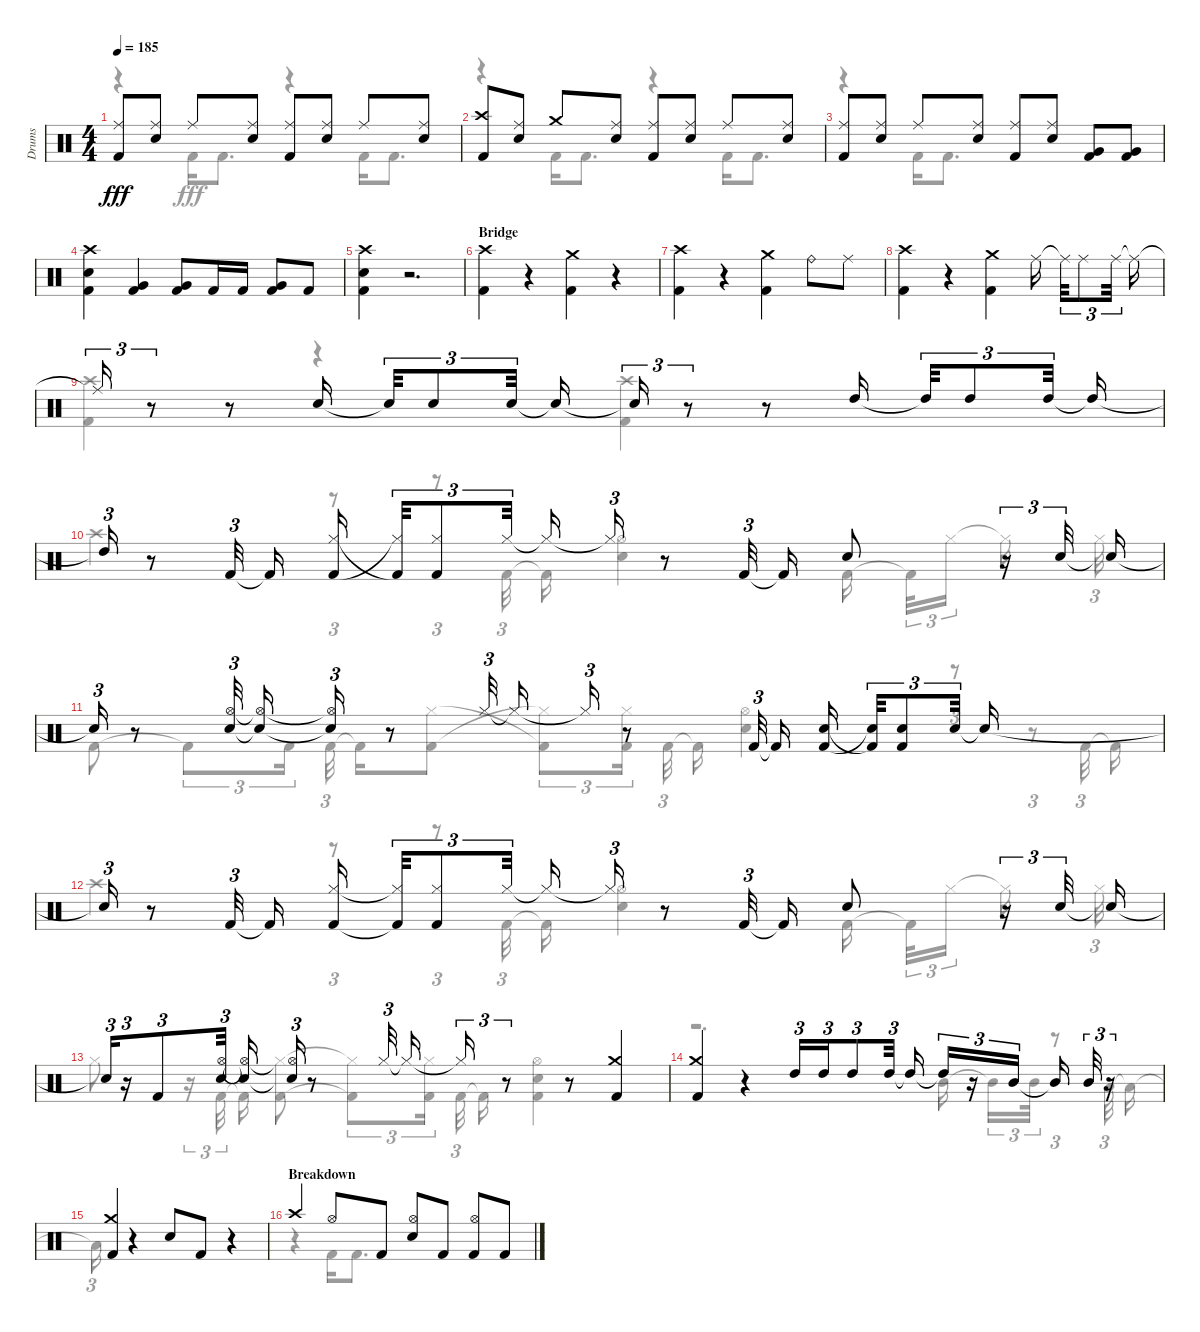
\track ("Drums" "Drums") {instrument percussion}
\staff {score}
\articulation defaults
\voice
\ts (4 4)
\tempo 185
\clef neutral
\ks aminor
("Kick (hit) 2" "Ride (middle)").8{dy fff} ("Ride (middle)" "Snare (hit) 2").8 "Ride (middle)".8 ("Ride (middle)" "Snare (hit) 2").8 ("Ride (middle)" "Kick (hit) 2").8 ("Ride (middle)" "Snare (hit) 2").8 "Ride (middle)".8 ("Snare (hit) 2" "Ride (middle)").8 |
("Crash high (hit)" "Kick (hit) 2").8 ("Snare (hit) 2" "Ride (middle)").8 "Crash medium (hit)".8 ("Ride (middle)" "Snare (hit) 2").8 ("Ride (middle)" "Kick (hit) 2").8 ("Snare (hit) 2" "Ride (middle)").8 "Ride (middle)".8 ("Snare (hit) 2" "Ride (middle)").8 |
("Ride (middle)" "Kick (hit) 2").8 ("Ride (middle)" "Snare (hit) 2").8 "Ride (middle)".8 ("Snare (hit) 2" "Ride (middle)").8 ("Kick (hit) 2" "Ride (middle)").8 ("Ride (middle)" "Snare (hit) 2").8 ("Very Low Tom (hit)" "Kick (hit) 2").8 ("Very Low Tom (hit)" "Kick (hit) 2").8 |
("Kick (hit) 2" "Snare (hit) 2" "Crash high (hit)").4 ("Kick (hit) 2" "Very Low Tom (hit)").4 ("Very Low Tom (hit)" "Kick (hit) 2").8 "Kick (hit) 2".16 "Kick (hit) 2".16 ("Kick (hit) 2" "Very Low Tom (hit)").8 "Kick (hit) 2".8 |
("Kick (hit) 2" "Snare (hit) 2" "Crash high (hit)").4 r.2{d} |
\section ("" "Bridge")
("Crash high (hit)" "Kick (hit) 2").4 r.4 ("Kick (hit) 2" "Crash medium (hit)").4 r.4 |
("Kick (hit) 2" "Crash high (hit)").4 r.4 ("Crash medium (hit)" "Kick (hit) 2").4 "Ride (bell)".8 "Ride (middle)".8 |
("Crash high (hit)" "Kick (hit) 2").4 r.4 ("Crash medium (hit)" "Kick (hit) 2").4 "Ride (middle)".16 "Ride (middle)"{t}.32{tu (3 2)} "Ride (middle)".8{tu (3 2)} "Ride (middle)".32{tu (3 2)} "Ride (middle)"{t}.16 |
"Ride (middle)"{t}.16{tu (3 2)} r.8{tu (3 2)} r.8 "Snare (hit) 2".16 "Snare (hit) 2"{t}.32{tu (3 2)} "Snare (hit) 2".8{tu (3 2)} "Snare (hit) 2".32{tu (3 2)} "Snare (hit) 2"{t}.16 "Snare (hit) 2"{t}.16{tu (3 2)} r.8{tu (3 2)} r.8 "High Tom (hit)".16 "High Tom (hit)"{t}.32{tu (3 2)} "High Tom (hit)".8{tu (3 2)} "High Tom (hit)".32{tu (3 2)} "High Tom (hit)"{t}.16 |
"High Tom (hit)"{t}.16{tu (3 2)} r.8 "Kick (hit) 2".32{tu (3 2)} "Kick (hit) 2"{t}.16 ("Hi-Hat (closed)" "Kick (hit) 2").16 ("Kick (hit) 2"{t} "Hi-Hat (closed)"{t}).32{tu (3 2)} ("Kick (hit) 2" "Hi-Hat (closed)").8{tu (3 2)} "Hi-Hat (closed)".32{tu (3 2)} "Hi-Hat (closed)"{t}.16 "Hi-Hat (closed)"{t}.16{tu (3 2)} r.8 "Kick (hit) 2".32{tu (3 2)} "Kick (hit) 2"{t}.16 "Snare (hit) 2".8 r.16{tu (3 2)} "Snare (hit) 2".32{tu (3 2)} "Snare (hit) 2"{t}.16 |
"Snare (hit) 2"{t}.16{tu (3 2)} r.8 ("Hi-Hat (open)" "Snare (hit) 2").32{tu (3 2)} ("Hi-Hat (open)"{t} "Snare (hit) 2"{t}).16 ("Hi-Hat (open)"{t} "Snare (hit) 2"{t}).16{tu (3 2)} r.8 "Hi-Hat (closed)".32{tu (3 2)} "Hi-Hat (closed)"{t}.16 "Hi-Hat (closed)"{t}.16{tu (3 2)} r.8 "Kick (hit) 2".32{tu (3 2)} "Kick (hit) 2"{t}.16 ("Kick (hit) 2" "Snare (hit) 2").16 ("Snare (hit) 2"{t} "Kick (hit) 2"{t}).32{tu (3 2)} ("Kick (hit) 2" "Snare (hit) 2").8{tu (3 2)} "Snare (hit) 2".32{tu (3 2)} "Snare (hit) 2"{t}.16 |
"Snare (hit) 2"{t}.16{tu (3 2)} r.8 "Kick (hit) 2".32{tu (3 2)} "Kick (hit) 2"{t}.16 ("Kick (hit) 2" "Hi-Hat (closed)").16 ("Kick (hit) 2"{t} "Hi-Hat (closed)"{t}).32{tu (3 2)} ("Kick (hit) 2" "Hi-Hat (closed)").8{tu (3 2)} "Hi-Hat (closed)".32{tu (3 2)} "Hi-Hat (closed)"{t}.16 "Hi-Hat (closed)"{t}.16{tu (3 2)} r.8 "Kick (hit) 2".32{tu (3 2)} "Kick (hit) 2"{t}.16 "Snare (hit) 2".8 r.16{tu (3 2)} "Snare (hit) 2".32{tu (3 2)} "Snare (hit) 2"{t}.16 |
"Snare (hit) 2"{t}.16{tu (3 2)} r.16{tu (3 2)} "Kick (hit) 2".8{tu (3 2)} ("Hi-Hat (open)" "Snare (hit) 2").32{tu (3 2)} ("Snare (hit) 2"{t} "Hi-Hat (open)"{t}).16 ("Snare (hit) 2"{t} "Hi-Hat (open)"{t}).16{tu (3 2)} r.8 "Hi-Hat (closed)".32{tu (3 2)} "Hi-Hat (closed)"{t}.16 "Hi-Hat (closed)"{t}.16{tu (3 2)} r.8{tu (3 2)} r.8 ("Crash medium (hit)" "Kick (hit) 2").4 |
("Crash medium (hit)" "Kick (hit) 2").4 r.4 "High Tom (hit)".16{tu (3 2)} "High Tom (hit)".16{tu (3 2)} "High Tom (hit)".8{tu (3 2)} "High Tom (hit)".32{tu (3 2)} "High Tom (hit)"{t}.16 "High Tom (hit)"{t}.16{tu (3 2)} r.16{tu (3 2)} "Mid Tom (hit)".16{tu (3 2)} "Mid Tom (hit)"{t}.16 "Mid Tom (hit)".32{tu (3 2)} r.16{tu (3 2)} |
("Kick (hit) 2" "Crash medium (hit)").4 r.4 "Snare (hit) 2".8 "Kick (hit) 2".8 r.4 |
\section ("" "Breakdown")
"Crash high (hit)".4 "Hi-Hat (open)".8 "Kick (hit) 2".8 ("Snare (hit) 2" "Hi-Hat (open)").8 "Kick (hit) 2".8 ("Kick (hit) 2" "Hi-Hat (open)").8 "Kick (hit) 2".8
\voice
\clef neutral
\ottava regular
\simile none
\ks aminor
r.4{dy fff} "Kick (hit) 2".16 "Kick (hit) 2".8{d} r.4 "Kick (hit) 2".16 "Kick (hit) 2".8{d} |
r.4 "Kick (hit) 2".16 "Kick (hit) 2".8{d} r.4 "Kick (hit) 2".16 "Kick (hit) 2".8{d} |
r.4 "Kick (hit) 2".16 "Kick (hit) 2".8{d} |
|
|
|
|
|
("Kick (hit) 2" "Crash high (hit)").4 r.4 ("Crash high (hit)" "Kick (hit) 2").4 |
"Crash high (hit)".4 r.8{tu (3 2)} r.8{tu (3 2)} "Kick (hit) 2".32{tu (3 2)} "Kick (hit) 2"{t}.16 ("Hi-Hat (open)" "Snare (hit) 2").4 "Kick (hit) 2".16 "Kick (hit) 2"{t}.32{tu (3 2)} "Hi-Hat (closed)".16{tu (3 2)} "Hi-Hat (closed)"{t}.16 "Hi-Hat (closed)".32{tu (3 2)} |
"Kick (hit) 2".8 "Kick (hit) 2"{t}.8{tu (3 2)} "Kick (hit) 2".16{tu (3 2)} "Kick (hit) 2".32{tu (3 2)} "Kick (hit) 2"{t}.16 ("Hi-Hat (closed)" "Kick (hit) 2").8 ("Kick (hit) 2"{t} "Hi-Hat (closed)"{t}).8{tu (3 2)} ("Hi-Hat (closed)" "Kick (hit) 2").16{tu (3 2)} "Kick (hit) 2".32{tu (3 2)} "Kick (hit) 2"{t}.16 ("Hi-Hat (open)" "Snare (hit) 2").4 r.8{tu (3 2)} r.8{tu (3 2)} "Kick (hit) 2".32{tu (3 2)} "Kick (hit) 2"{t}.16 |
"Crash high (hit)".4 r.8{tu (3 2)} r.8{tu (3 2)} "Kick (hit) 2".32{tu (3 2)} "Kick (hit) 2"{t}.16 ("Snare (hit) 2" "Hi-Hat (open)").4 "Kick (hit) 2".16 "Kick (hit) 2"{t}.32{tu (3 2)} "Hi-Hat (closed)".16{tu (3 2)} "Hi-Hat (closed)"{t}.16 "Hi-Hat (closed)".32{tu (3 2)} |
"Hi-Hat (closed)".8 r.16{tu (3 2)} "Kick (hit) 2".32{tu (3 2)} "Kick (hit) 2"{t}.16 ("Hi-Hat (closed)" "Kick (hit) 2").8 ("Hi-Hat (closed)"{t} "Kick (hit) 2"{t}).8{tu (3 2)} ("Hi-Hat (closed)" "Kick (hit) 2").16{tu (3 2)} "Kick (hit) 2".32{tu (3 2)} "Kick (hit) 2"{t}.16 ("Hi-Hat (open)" "Kick (hit) 2" "Snare (hit) 2").4 |
r.2{d} "Mid Tom (hit)".16 "Mid Tom (hit)"{t}.16{tu (3 2)} "Mid Tom (hit)".32{tu (3 2)} r.8{tu (3 2)} "Low Tom (hit)".32{tu (3 2)} "Low Tom (hit)"{t}.16 |
"Low Tom (hit)"{t}.16{tu (3 2)} |
r.4 "Kick (hit) 2".16 "Kick (hit) 2".8{d}
